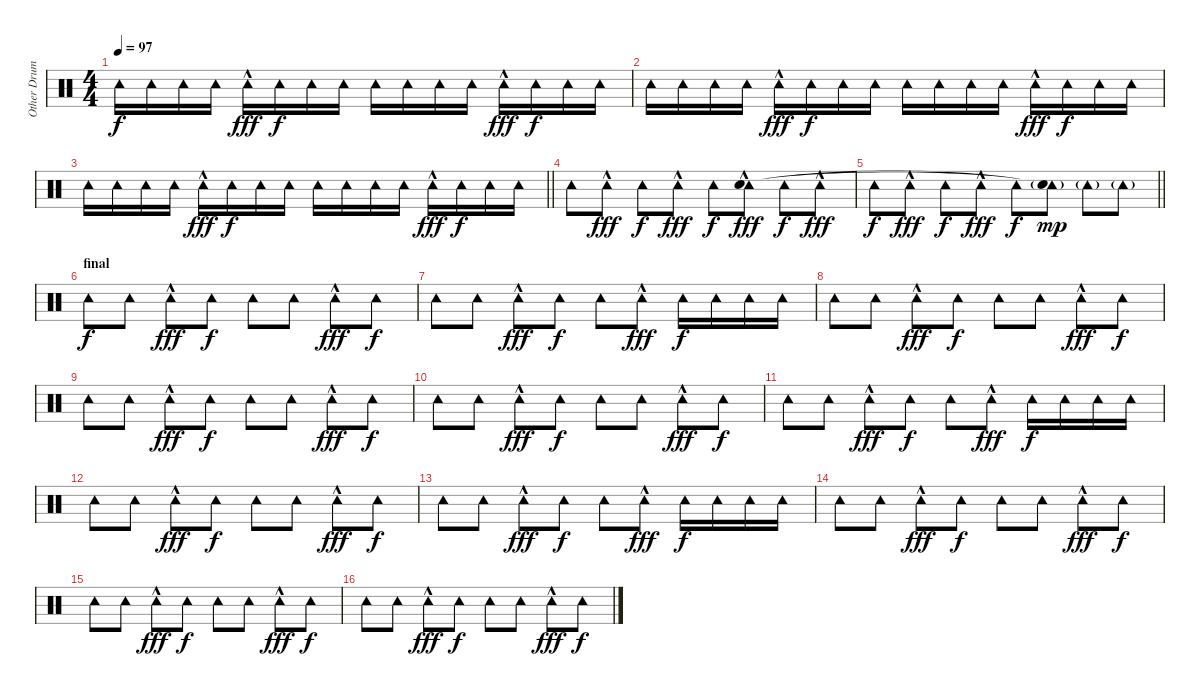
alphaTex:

\track ("Other Drumer" "Other Drum") {instrument percussion}
\staff {score}
\articulation defaults
\ts (4 4)
\tempo 97
\clef neutral
\ks c "Tambourine (hit)".16{dy f} "Tambourine (hit)".16 "Tambourine (hit)".16 "Tambourine (hit)".16 "Tambourine (hit)"{hac}.16{dy fff} "Tambourine (hit)".16{dy f} "Tambourine (hit)".16 "Tambourine (hit)".16 "Tambourine (hit)".16 "Tambourine (hit)".16 "Tambourine (hit)".16 "Tambourine (hit)".16 "Tambourine (hit)"{hac}.16{dy fff} "Tambourine (hit)".16{dy f} "Tambourine (hit)".16 "Tambourine (hit)".16
|
"Tambourine (hit)".16 "Tambourine (hit)".16 "Tambourine (hit)".16 "Tambourine (hit)".16 "Tambourine (hit)"{hac}.16{dy fff} "Tambourine (hit)".16{dy f} "Tambourine (hit)".16 "Tambourine (hit)".16 "Tambourine (hit)".16 "Tambourine (hit)".16 "Tambourine (hit)".16 "Tambourine (hit)".16 "Tambourine (hit)"{hac}.16{dy fff} "Tambourine (hit)".16{dy f} "Tambourine (hit)".16 "Tambourine (hit)".16 |
\barLineRight lightlight "Tambourine (hit)".16 "Tambourine (hit)".16 "Tambourine (hit)".16 "Tambourine (hit)".16 "Tambourine (hit)"{hac}.16{dy fff} "Tambourine (hit)".16{dy f} "Tambourine (hit)".16 "Tambourine (hit)".16 "Tambourine (hit)".16 "Tambourine (hit)".16 "Tambourine (hit)".16 "Tambourine (hit)".16 "Tambourine (hit)"{hac}.16{dy fff} "Tambourine (hit)".16{dy f} "Tambourine (hit)".16 "Tambourine (hit)".16
|
"Tambourine (hit)".8 "Tambourine (hit)"{hac}.8{dy fff} "Tambourine (hit)".8{dy f} "Tambourine (hit)"{hac}.8{dy fff} "Tambourine (hit)".8{dy f} ("Tambourine (hit)"{hac} "Snare (hit)").8{dy fff} "Tambourine (hit)".8{dy f} "Tambourine (hit)"{hac}.8{dy fff} |
\barLineRight lightlight "Tambourine (hit)".8{dy f} "Tambourine (hit)"{hac}.8{dy fff} "Tambourine (hit)".8{dy f} "Tambourine (hit)"{hac}.8{dy fff} "Tambourine (hit)".8{dy f}
("Tambourine (hit)"{g} "Snare (hit)"{t}).8{dy mp} "Tambourine (hit)"{g}.8 "Tambourine (hit)"{g}.8 |
\section ("" "final")
"Tambourine (hit)".8{dy f} "Tambourine (hit)".8 "Tambourine (hit)"{hac}.8{dy fff} "Tambourine (hit)".8{dy f} "Tambourine (hit)".8 "Tambourine (hit)".8 "Tambourine (hit)"{hac}.8{dy fff} "Tambourine (hit)".8{dy f} |
"Tambourine (hit)".8 "Tambourine (hit)".8 "Tambourine (hit)"{hac}.8{dy fff} "Tambourine (hit)".8{dy f} "Tambourine (hit)".8 "Tambourine (hit)"{hac}.8{dy fff} "Tambourine (hit)".16{dy f} "Tambourine (hit)".16 "Tambourine (hit)".16 "Tambourine (hit)".16 |
"Tambourine (hit)".8 "Tambourine (hit)".8 "Tambourine (hit)"{hac}.8{dy fff} "Tambourine (hit)".8{dy f} "Tambourine (hit)".8 "Tambourine (hit)".8 "Tambourine (hit)"{hac}.8{dy fff} "Tambourine (hit)".8{dy f} |
"Tambourine (hit)".8 "Tambourine (hit)".8 "Tambourine (hit)"{hac}.8{dy fff} "Tambourine (hit)".8{dy f} "Tambourine (hit)".8 "Tambourine (hit)".8 "Tambourine (hit)"{hac}.8{dy fff} "Tambourine (hit)".8{dy f} |
"Tambourine (hit)".8 "Tambourine (hit)".8 "Tambourine (hit)"{hac}.8{dy fff} "Tambourine (hit)".8{dy f} "Tambourine (hit)".8 "Tambourine (hit)".8 "Tambourine (hit)"{hac}.8{dy fff} "Tambourine (hit)".8{dy f} |
"Tambourine (hit)".8 "Tambourine (hit)".8 "Tambourine (hit)"{hac}.8{dy fff} "Tambourine (hit)".8{dy f} "Tambourine (hit)".8 "Tambourine (hit)"{hac}.8{dy fff} "Tambourine (hit)".16{dy f} "Tambourine (hit)".16 "Tambourine (hit)".16 "Tambourine (hit)".16 |
"Tambourine (hit)".8 "Tambourine (hit)".8 "Tambourine (hit)"{hac}.8{dy fff} "Tambourine (hit)".8{dy f} "Tambourine (hit)".8 "Tambourine (hit)".8 "Tambourine (hit)"{hac}.8{dy fff} "Tambourine (hit)".8{dy f} |
"Tambourine (hit)".8 "Tambourine (hit)".8 "Tambourine (hit)"{hac}.8{dy fff} "Tambourine (hit)".8{dy f} "Tambourine (hit)".8 "Tambourine (hit)"{hac}.8{dy fff} "Tambourine (hit)".16{dy f} "Tambourine (hit)".16 "Tambourine (hit)".16 "Tambourine (hit)".16 |
"Tambourine (hit)".8 "Tambourine (hit)".8 "Tambourine (hit)"{hac}.8{dy fff} "Tambourine (hit)".8{dy f} "Tambourine (hit)".8 "Tambourine (hit)".8 "Tambourine (hit)"{hac}.8{dy fff} "Tambourine (hit)".8{dy f} |
"Tambourine (hit)".8 "Tambourine (hit)".8 "Tambourine (hit)"{hac}.8{dy fff} "Tambourine (hit)".8{dy f} "Tambourine (hit)".8 "Tambourine (hit)".8 "Tambourine (hit)"{hac}.8{dy fff} "Tambourine (hit)".8{dy f} |
"Tambourine (hit)".8 "Tambourine (hit)".8 "Tambourine (hit)"{hac}.8{dy fff} "Tambourine (hit)".8{dy f} "Tambourine (hit)".8 "Tambourine (hit)".8 "Tambourine (hit)"{hac}.8{dy fff} "Tambourine (hit)".8{dy f}
